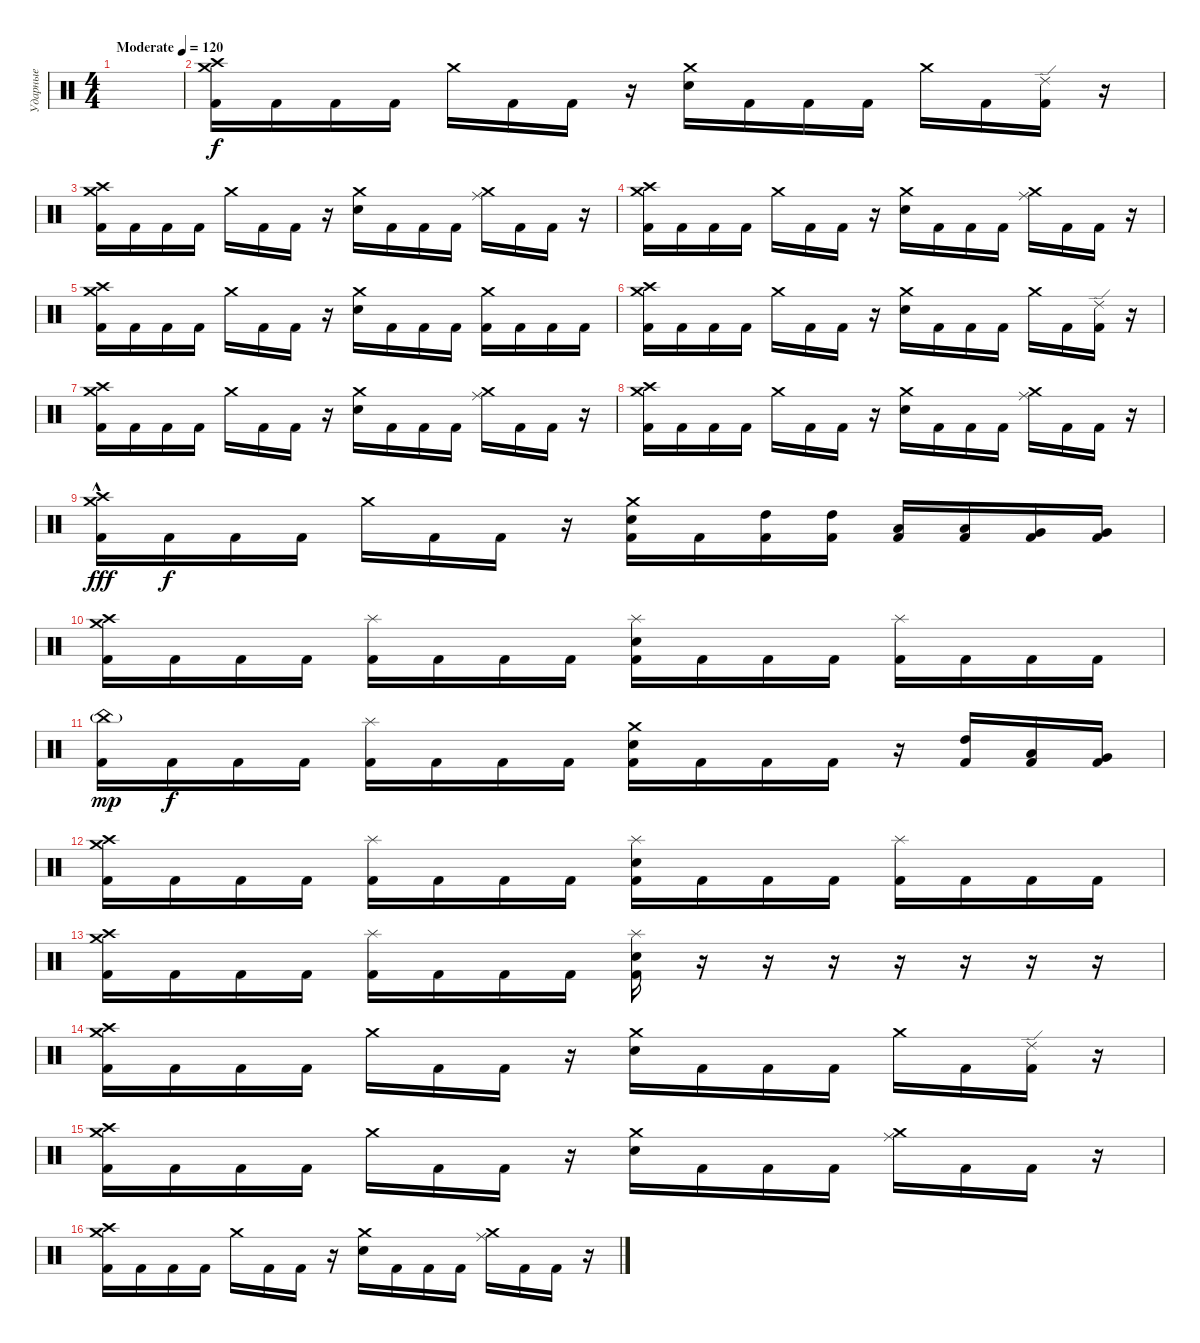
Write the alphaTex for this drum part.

\track ("Ударные" "Ударные") {instrument percussion}
\staff {score}
\articulation defaults
\ts (4 4)
\tempo (120 "Moderate")
\clef neutral
\ks c
|
("Crash medium (hit)" "Crash high (hit)" "Kick (hit) 2").16 "Kick (hit) 2".16 "Kick (hit) 2".16 "Kick (hit) 2".16 "Crash medium (hit)".16 "Kick (hit) 2".16 "Kick (hit) 2".16 r.16 ("Crash medium (hit)" "Electric Snare (hit)").16 "Kick (hit) 2".16 "Kick (hit) 2".16 "Kick (hit) 2".16 "Crash medium (hit)".16 "Kick (hit) 2".16 ("Ride (edge) 2" "Kick (hit) 2").16 r.16 |
("Crash medium (hit)" "Crash high (hit)" "Kick (hit) 2").16 "Kick (hit) 2".16 "Kick (hit) 2".16 "Kick (hit) 2".16 "Crash medium (hit)".16 "Kick (hit) 2".16 "Kick (hit) 2".16 r.16 ("Crash medium (hit)" "Electric Snare (hit)").16 "Kick (hit) 2".16 "Kick (hit) 2".16 "Kick (hit) 2".16 ("Crash medium (hit)" "Ride (middle)").16 "Kick (hit) 2".16 "Kick (hit) 2".16 r.16 |
("Crash medium (hit)" "Crash high (hit)" "Kick (hit) 2").16 "Kick (hit) 2".16 "Kick (hit) 2".16 "Kick (hit) 2".16 "Crash medium (hit)".16 "Kick (hit) 2".16 "Kick (hit) 2".16 r.16 ("Crash medium (hit)" "Electric Snare (hit)").16 "Kick (hit) 2".16 "Kick (hit) 2".16 "Kick (hit) 2".16 ("Crash medium (hit)" "Ride (middle)").16 "Kick (hit) 2".16 "Kick (hit) 2".16 r.16 |
("Crash medium (hit)" "Crash high (hit)" "Kick (hit) 2").16 "Kick (hit) 2".16 "Kick (hit) 2".16 "Kick (hit) 2".16 "Crash medium (hit)".16 "Kick (hit) 2".16 "Kick (hit) 2".16 r.16 ("Crash medium (hit)" "Electric Snare (hit)").16 "Kick (hit) 2".16 "Kick (hit) 2".16 "Kick (hit) 2".16 ("Crash medium (hit)" "Kick (hit) 2").16 "Kick (hit) 2".16 "Kick (hit) 2".16 "Kick (hit) 2".16 |
("Crash medium (hit)" "Crash high (hit)" "Kick (hit) 2").16 "Kick (hit) 2".16 "Kick (hit) 2".16 "Kick (hit) 2".16 "Crash medium (hit)".16 "Kick (hit) 2".16 "Kick (hit) 2".16 r.16 ("Crash medium (hit)" "Electric Snare (hit)").16 "Kick (hit) 2".16 "Kick (hit) 2".16 "Kick (hit) 2".16 "Crash medium (hit)".16 "Kick (hit) 2".16 ("Ride (edge) 2" "Kick (hit) 2").16 r.16 |
("Crash medium (hit)" "Crash high (hit)" "Kick (hit) 2").16 "Kick (hit) 2".16 "Kick (hit) 2".16 "Kick (hit) 2".16 "Crash medium (hit)".16 "Kick (hit) 2".16 "Kick (hit) 2".16 r.16 ("Crash medium (hit)" "Electric Snare (hit)").16 "Kick (hit) 2".16 "Kick (hit) 2".16 "Kick (hit) 2".16 ("Crash medium (hit)" "Ride (middle)").16 "Kick (hit) 2".16 "Kick (hit) 2".16 r.16 |
("Crash medium (hit)" "Crash high (hit)" "Kick (hit) 2").16 "Kick (hit) 2".16 "Kick (hit) 2".16 "Kick (hit) 2".16 "Crash medium (hit)".16 "Kick (hit) 2".16 "Kick (hit) 2".16 r.16 ("Crash medium (hit)" "Electric Snare (hit)").16 "Kick (hit) 2".16 "Kick (hit) 2".16 "Kick (hit) 2".16 ("Crash medium (hit)" "Ride (middle)").16 "Kick (hit) 2".16 "Kick (hit) 2".16 r.16 |
("Crash medium (hit)" "Crash high (hit)"{hac} "Kick (hit) 2").16{dy fff} "Kick (hit) 2".16{dy f} "Kick (hit) 2".16 "Kick (hit) 2".16 "Crash medium (hit)".16 "Kick (hit) 2".16 "Kick (hit) 2".16 r.16 ("Crash medium (hit)" "Electric Snare (hit)" "Kick (hit) 2").16 "Kick (hit) 2".16 ("High Tom (hit)" "Kick (hit) 2").16 ("High Tom (hit)" "Kick (hit) 2").16 ("Low Tom (hit)" "Kick (hit) 2").16 ("Low Tom (hit)" "Kick (hit) 2").16 ("Very Low Tom (hit)" "Kick (hit) 2").16 ("Very Low Tom (hit)" "Kick (hit) 2").16 |
("Crash medium (hit)" "Crash high (hit)" "Kick (hit) 2").16 "Kick (hit) 2".16 "Kick (hit) 2".16 "Kick (hit) 2".16 ("Splash (hit)" "Kick (hit) 2").16 "Kick (hit) 2".16 "Kick (hit) 2".16 "Kick (hit) 2".16 ("Splash (hit)" "Electric Snare (hit)" "Kick (hit) 2").16 "Kick (hit) 2".16 "Kick (hit) 2".16 "Kick (hit) 2".16 ("Splash (hit)" "Kick (hit) 2").16 "Kick (hit) 2".16 "Kick (hit) 2".16 "Kick (hit) 2".16 |
("China (hit)"{g} "Kick (hit) 2").16{dy mp} "Kick (hit) 2".16{dy f} "Kick (hit) 2".16 "Kick (hit) 2".16 ("Splash (hit)" "Kick (hit) 2").16 "Kick (hit) 2".16 "Kick (hit) 2".16 "Kick (hit) 2".16 ("Crash medium (hit)" "Electric Snare (hit)" "Kick (hit) 2").16 "Kick (hit) 2".16 "Kick (hit) 2".16 "Kick (hit) 2".16 r.16 ("High Tom (hit)" "Kick (hit) 2").16 ("Low Tom (hit)" "Kick (hit) 2").16 ("Very Low Tom (hit)" "Kick (hit) 2").16 |
("Crash medium (hit)" "Crash high (hit)" "Kick (hit) 2").16 "Kick (hit) 2".16 "Kick (hit) 2".16 "Kick (hit) 2".16 ("Splash (hit)" "Kick (hit) 2").16 "Kick (hit) 2".16 "Kick (hit) 2".16 "Kick (hit) 2".16 ("Splash (hit)" "Electric Snare (hit)" "Kick (hit) 2").16 "Kick (hit) 2".16 "Kick (hit) 2".16 "Kick (hit) 2".16 ("Splash (hit)" "Kick (hit) 2").16 "Kick (hit) 2".16 "Kick (hit) 2".16 "Kick (hit) 2".16 |
("Crash medium (hit)" "Crash high (hit)" "Kick (hit) 2").16 "Kick (hit) 2".16 "Kick (hit) 2".16 "Kick (hit) 2".16 ("Splash (hit)" "Kick (hit) 2").16 "Kick (hit) 2".16 "Kick (hit) 2".16 "Kick (hit) 2".16 ("Splash (hit)" "Electric Snare (hit)" "Kick (hit) 2").16 r.16 r.16 r.16 r.16 r.16 r.16 r.16 |
("Crash medium (hit)" "Crash high (hit)" "Kick (hit) 2").16 "Kick (hit) 2".16 "Kick (hit) 2".16 "Kick (hit) 2".16 "Crash medium (hit)".16 "Kick (hit) 2".16 "Kick (hit) 2".16 r.16 ("Crash medium (hit)" "Electric Snare (hit)").16 "Kick (hit) 2".16 "Kick (hit) 2".16 "Kick (hit) 2".16 "Crash medium (hit)".16 "Kick (hit) 2".16 ("Ride (edge) 2" "Kick (hit) 2").16 r.16 |
("Crash medium (hit)" "Crash high (hit)" "Kick (hit) 2").16 "Kick (hit) 2".16 "Kick (hit) 2".16 "Kick (hit) 2".16 "Crash medium (hit)".16 "Kick (hit) 2".16 "Kick (hit) 2".16 r.16 ("Crash medium (hit)" "Electric Snare (hit)").16 "Kick (hit) 2".16 "Kick (hit) 2".16 "Kick (hit) 2".16 ("Crash medium (hit)" "Ride (middle)").16 "Kick (hit) 2".16 "Kick (hit) 2".16 r.16 |
("Crash medium (hit)" "Crash high (hit)" "Kick (hit) 2").16 "Kick (hit) 2".16 "Kick (hit) 2".16 "Kick (hit) 2".16 "Crash medium (hit)".16 "Kick (hit) 2".16 "Kick (hit) 2".16 r.16 ("Crash medium (hit)" "Electric Snare (hit)").16 "Kick (hit) 2".16 "Kick (hit) 2".16 "Kick (hit) 2".16 ("Crash medium (hit)" "Ride (middle)").16 "Kick (hit) 2".16 "Kick (hit) 2".16 r.16
